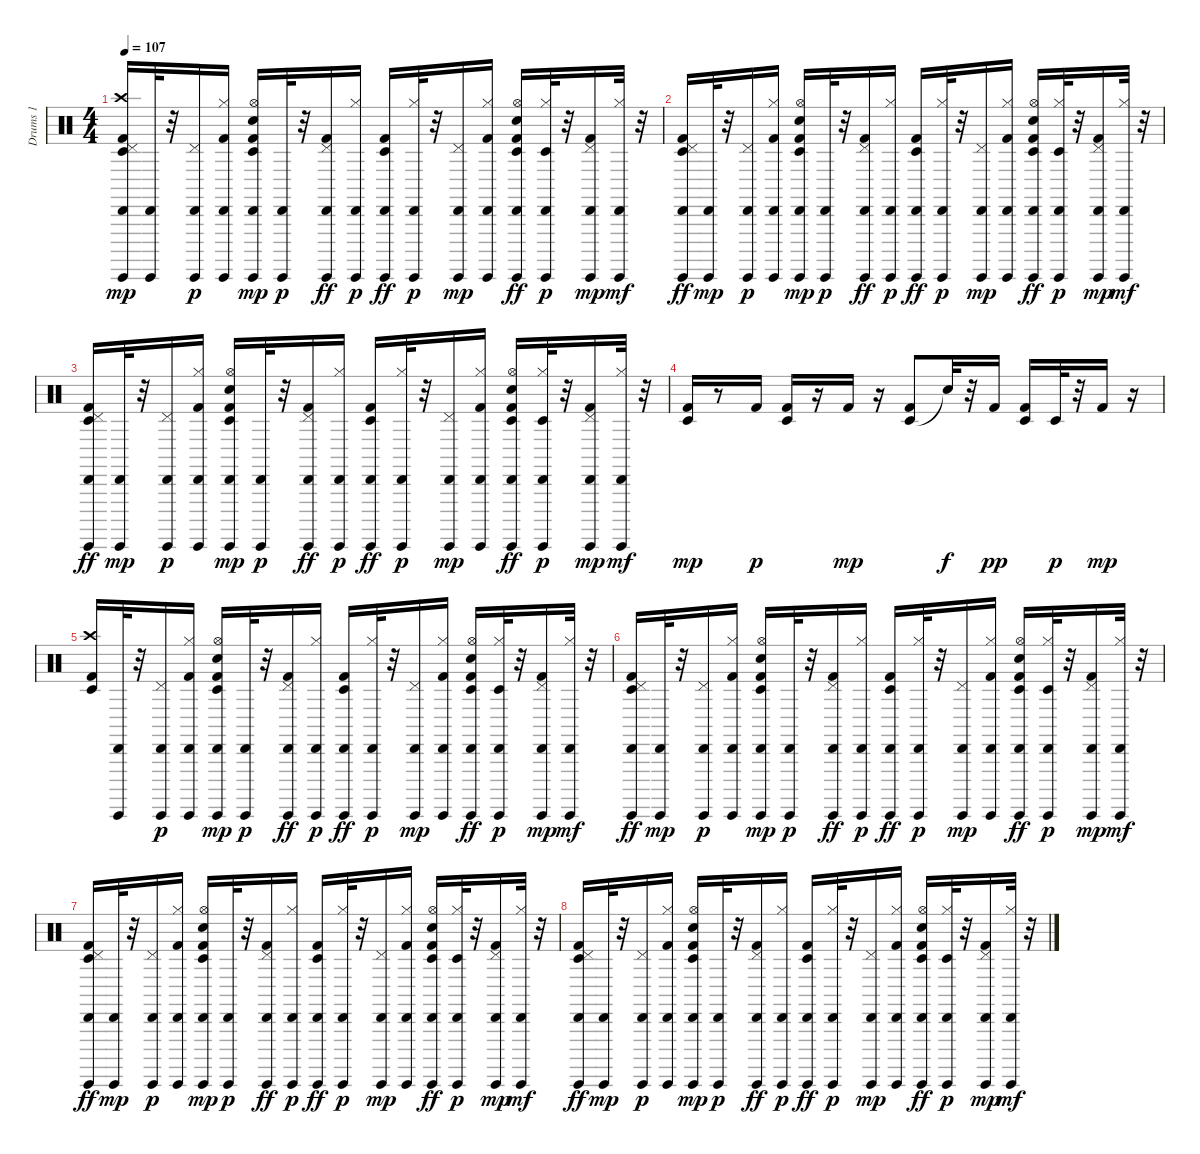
\track ("Drums 1" "Drums 1") {instrument percussion}
\staff {score}
\articulation defaults
\ts (4 4)
\tempo 107
\clef neutral
\ks c
("Timbale low (hit)" "Kick (hit) 2" "Pedal Hi-Hat (hit)" "Guiro (hit)" "Cabasa (hit)" "Crash high (hit)").16{dy mp} ("Guiro (hit)" "Cabasa (hit)").32 r.32 ("Pedal Hi-Hat (hit)" "Guiro (hit)" "Cabasa (hit)").16{dy p} ("Kick (hit) 2" "Hi-Hat (closed)" "Guiro (hit)" "Cabasa (hit)").16 ("Timbale low (hit)" "Kick (hit) 2" "Electric Snare (hit)" "Hi-Hat (open)" "Guiro (hit)" "Cabasa (hit)").16{dy mp} ("Guiro (hit)" "Cabasa (hit)").32{dy p} r.32 ("Kick (hit) 2" "Pedal Hi-Hat (hit)" "Guiro (hit)" "Cabasa (hit)").16{dy ff} ("Hi-Hat (closed)" "Guiro (hit)" "Cabasa (hit)").16{dy p} ("Timbale low (hit)" "Kick (hit) 2" "Guiro (hit)" "Cabasa (hit)").16{dy ff} ("Hi-Hat (closed)" "Guiro (hit)" "Cabasa (hit)").32{dy p} r.32 ("Pedal Hi-Hat (hit)" "Guiro (hit)" "Cabasa (hit)").16{dy mp} ("Kick (hit) 2" "Hi-Hat (closed)" "Guiro (hit)" "Cabasa (hit)").16 ("Timbale low (hit)" "Kick (hit) 2" "Electric Snare (hit)" "Hi-Hat (open)" "Guiro (hit)" "Cabasa (hit)").16{dy ff} ("Timbale low (hit)" "Hi-Hat (closed)" "Guiro (hit)" "Cabasa (hit)").32{dy p} r.32 ("Kick (hit) 2" "Pedal Hi-Hat (hit)" "Guiro (hit)" "Cabasa (hit)").16{dy mp} ("Hi-Hat (closed)" "Guiro (hit)" "Cabasa (hit)").32{dy mf} r.32 |
("Timbale low (hit)" "Kick (hit) 2" "Pedal Hi-Hat (hit)" "Guiro (hit)" "Cabasa (hit)").16{dy ff} ("Guiro (hit)" "Cabasa (hit)").32{dy mp} r.32 ("Pedal Hi-Hat (hit)" "Guiro (hit)" "Cabasa (hit)").16{dy p} ("Kick (hit) 2" "Hi-Hat (closed)" "Guiro (hit)" "Cabasa (hit)").16 ("Timbale low (hit)" "Kick (hit) 2" "Electric Snare (hit)" "Hi-Hat (open)" "Guiro (hit)" "Cabasa (hit)").16{dy mp} ("Guiro (hit)" "Cabasa (hit)").32{dy p} r.32 ("Kick (hit) 2" "Pedal Hi-Hat (hit)" "Guiro (hit)" "Cabasa (hit)").16{dy ff} ("Hi-Hat (closed)" "Guiro (hit)" "Cabasa (hit)").16{dy p} ("Timbale low (hit)" "Kick (hit) 2" "Guiro (hit)" "Cabasa (hit)").16{dy ff} ("Hi-Hat (closed)" "Guiro (hit)" "Cabasa (hit)").32{dy p} r.32 ("Pedal Hi-Hat (hit)" "Guiro (hit)" "Cabasa (hit)").16{dy mp} ("Kick (hit) 2" "Hi-Hat (closed)" "Guiro (hit)" "Cabasa (hit)").16 ("Timbale low (hit)" "Kick (hit) 2" "Electric Snare (hit)" "Hi-Hat (open)" "Guiro (hit)" "Cabasa (hit)").16{dy ff} ("Timbale low (hit)" "Hi-Hat (closed)" "Guiro (hit)" "Cabasa (hit)").32{dy p} r.32 ("Kick (hit) 2" "Pedal Hi-Hat (hit)" "Guiro (hit)" "Cabasa (hit)").16{dy mp} ("Hi-Hat (closed)" "Guiro (hit)" "Cabasa (hit)").32{dy mf} r.32 |
("Timbale low (hit)" "Kick (hit) 2" "Pedal Hi-Hat (hit)" "Guiro (hit)" "Cabasa (hit)").16{dy ff} ("Guiro (hit)" "Cabasa (hit)").32{dy mp} r.32 ("Pedal Hi-Hat (hit)" "Guiro (hit)" "Cabasa (hit)").16{dy p} ("Kick (hit) 2" "Hi-Hat (closed)" "Guiro (hit)" "Cabasa (hit)").16 ("Timbale low (hit)" "Kick (hit) 2" "Electric Snare (hit)" "Hi-Hat (open)" "Guiro (hit)" "Cabasa (hit)").16{dy mp} ("Guiro (hit)" "Cabasa (hit)").32{dy p} r.32 ("Kick (hit) 2" "Pedal Hi-Hat (hit)" "Guiro (hit)" "Cabasa (hit)").16{dy ff} ("Hi-Hat (closed)" "Guiro (hit)" "Cabasa (hit)").16{dy p} ("Timbale low (hit)" "Kick (hit) 2" "Guiro (hit)" "Cabasa (hit)").16{dy ff} ("Hi-Hat (closed)" "Guiro (hit)" "Cabasa (hit)").32{dy p} r.32 ("Pedal Hi-Hat (hit)" "Guiro (hit)" "Cabasa (hit)").16{dy mp} ("Kick (hit) 2" "Hi-Hat (closed)" "Guiro (hit)" "Cabasa (hit)").16 ("Timbale low (hit)" "Kick (hit) 2" "Electric Snare (hit)" "Hi-Hat (open)" "Guiro (hit)" "Cabasa (hit)").16{dy ff} ("Timbale low (hit)" "Hi-Hat (closed)" "Guiro (hit)" "Cabasa (hit)").32{dy p} r.32 ("Kick (hit) 2" "Pedal Hi-Hat (hit)" "Guiro (hit)" "Cabasa (hit)").16{dy mp} ("Hi-Hat (closed)" "Guiro (hit)" "Cabasa (hit)").32{dy mf} r.32 |
("Timbale low (hit)" "Kick (hit) 2").16{dy mp} r.8 "Kick (hit) 2".16{dy p} ("Timbale low (hit)" "Kick (hit) 2").16 r.16 "Kick (hit) 2".16{dy mp} r.16 ("Timbale low (hit)" "Kick (hit) 2").8 "Snare (hit)"{t}.32{dy f} r.32 "Kick (hit) 2".16{dy pp} ("Timbale low (hit)" "Kick (hit) 2").16 "Timbale low (hit)".32{dy p} r.32 "Kick (hit) 2".16{dy mp} r.16 |
("Timbale low (hit)" "Kick (hit) 2" "Crash high (hit)").16 ("Guiro (hit)" "Cabasa (hit)").32 r.32 ("Pedal Hi-Hat (hit)" "Guiro (hit)" "Cabasa (hit)").16{dy p} ("Kick (hit) 2" "Hi-Hat (closed)" "Guiro (hit)" "Cabasa (hit)").16 ("Timbale low (hit)" "Kick (hit) 2" "Electric Snare (hit)" "Hi-Hat (open)" "Guiro (hit)" "Cabasa (hit)").16{dy mp} ("Guiro (hit)" "Cabasa (hit)").32{dy p} r.32 ("Kick (hit) 2" "Pedal Hi-Hat (hit)" "Guiro (hit)" "Cabasa (hit)").16{dy ff} ("Hi-Hat (closed)" "Guiro (hit)" "Cabasa (hit)").16{dy p} ("Timbale low (hit)" "Kick (hit) 2" "Guiro (hit)" "Cabasa (hit)").16{dy ff} ("Hi-Hat (closed)" "Guiro (hit)" "Cabasa (hit)").32{dy p} r.32 ("Pedal Hi-Hat (hit)" "Guiro (hit)" "Cabasa (hit)").16{dy mp} ("Kick (hit) 2" "Hi-Hat (closed)" "Guiro (hit)" "Cabasa (hit)").16 ("Timbale low (hit)" "Kick (hit) 2" "Electric Snare (hit)" "Hi-Hat (open)" "Guiro (hit)" "Cabasa (hit)").16{dy ff} ("Timbale low (hit)" "Hi-Hat (closed)" "Guiro (hit)" "Cabasa (hit)").32{dy p} r.32 ("Kick (hit) 2" "Pedal Hi-Hat (hit)" "Guiro (hit)" "Cabasa (hit)").16{dy mp} ("Hi-Hat (closed)" "Guiro (hit)" "Cabasa (hit)").32{dy mf} r.32 |
("Timbale low (hit)" "Kick (hit) 2" "Pedal Hi-Hat (hit)" "Guiro (hit)" "Cabasa (hit)").16{dy ff} ("Guiro (hit)" "Cabasa (hit)").32{dy mp} r.32 ("Pedal Hi-Hat (hit)" "Guiro (hit)" "Cabasa (hit)").16{dy p} ("Kick (hit) 2" "Hi-Hat (closed)" "Guiro (hit)" "Cabasa (hit)").16 ("Timbale low (hit)" "Kick (hit) 2" "Electric Snare (hit)" "Hi-Hat (open)" "Guiro (hit)" "Cabasa (hit)").16{dy mp} ("Guiro (hit)" "Cabasa (hit)").32{dy p} r.32 ("Kick (hit) 2" "Pedal Hi-Hat (hit)" "Guiro (hit)" "Cabasa (hit)").16{dy ff} ("Hi-Hat (closed)" "Guiro (hit)" "Cabasa (hit)").16{dy p} ("Timbale low (hit)" "Kick (hit) 2" "Guiro (hit)" "Cabasa (hit)").16{dy ff} ("Hi-Hat (closed)" "Guiro (hit)" "Cabasa (hit)").32{dy p} r.32 ("Pedal Hi-Hat (hit)" "Guiro (hit)" "Cabasa (hit)").16{dy mp} ("Kick (hit) 2" "Hi-Hat (closed)" "Guiro (hit)" "Cabasa (hit)").16 ("Timbale low (hit)" "Kick (hit) 2" "Electric Snare (hit)" "Hi-Hat (open)" "Guiro (hit)" "Cabasa (hit)").16{dy ff} ("Timbale low (hit)" "Hi-Hat (closed)" "Guiro (hit)" "Cabasa (hit)").32{dy p} r.32 ("Kick (hit) 2" "Pedal Hi-Hat (hit)" "Guiro (hit)" "Cabasa (hit)").16{dy mp} ("Hi-Hat (closed)" "Guiro (hit)" "Cabasa (hit)").32{dy mf} r.32 |
("Timbale low (hit)" "Kick (hit) 2" "Pedal Hi-Hat (hit)" "Guiro (hit)" "Cabasa (hit)").16{dy ff} ("Guiro (hit)" "Cabasa (hit)").32{dy mp} r.32 ("Pedal Hi-Hat (hit)" "Guiro (hit)" "Cabasa (hit)").16{dy p} ("Kick (hit) 2" "Hi-Hat (closed)" "Guiro (hit)" "Cabasa (hit)").16 ("Timbale low (hit)" "Kick (hit) 2" "Electric Snare (hit)" "Hi-Hat (open)" "Guiro (hit)" "Cabasa (hit)").16{dy mp} ("Guiro (hit)" "Cabasa (hit)").32{dy p} r.32 ("Kick (hit) 2" "Pedal Hi-Hat (hit)" "Guiro (hit)" "Cabasa (hit)").16{dy ff} ("Hi-Hat (closed)" "Guiro (hit)" "Cabasa (hit)").16{dy p} ("Timbale low (hit)" "Kick (hit) 2" "Guiro (hit)" "Cabasa (hit)").16{dy ff} ("Hi-Hat (closed)" "Guiro (hit)" "Cabasa (hit)").32{dy p} r.32 ("Pedal Hi-Hat (hit)" "Guiro (hit)" "Cabasa (hit)").16{dy mp} ("Kick (hit) 2" "Hi-Hat (closed)" "Guiro (hit)" "Cabasa (hit)").16 ("Timbale low (hit)" "Kick (hit) 2" "Electric Snare (hit)" "Hi-Hat (open)" "Guiro (hit)" "Cabasa (hit)").16{dy ff} ("Timbale low (hit)" "Hi-Hat (closed)" "Guiro (hit)" "Cabasa (hit)").32{dy p} r.32 ("Kick (hit) 2" "Pedal Hi-Hat (hit)" "Guiro (hit)" "Cabasa (hit)").16{dy mp} ("Hi-Hat (closed)" "Guiro (hit)" "Cabasa (hit)").32{dy mf} r.32 |
("Timbale low (hit)" "Kick (hit) 2" "Pedal Hi-Hat (hit)" "Guiro (hit)" "Cabasa (hit)").16{dy ff} ("Guiro (hit)" "Cabasa (hit)").32{dy mp} r.32 ("Pedal Hi-Hat (hit)" "Guiro (hit)" "Cabasa (hit)").16{dy p} ("Kick (hit) 2" "Hi-Hat (closed)" "Guiro (hit)" "Cabasa (hit)").16 ("Timbale low (hit)" "Kick (hit) 2" "Electric Snare (hit)" "Hi-Hat (open)" "Guiro (hit)" "Cabasa (hit)").16{dy mp} ("Guiro (hit)" "Cabasa (hit)").32{dy p} r.32 ("Kick (hit) 2" "Pedal Hi-Hat (hit)" "Guiro (hit)" "Cabasa (hit)").16{dy ff} ("Hi-Hat (closed)" "Guiro (hit)" "Cabasa (hit)").16{dy p} ("Timbale low (hit)" "Kick (hit) 2" "Guiro (hit)" "Cabasa (hit)").16{dy ff} ("Hi-Hat (closed)" "Guiro (hit)" "Cabasa (hit)").32{dy p} r.32 ("Pedal Hi-Hat (hit)" "Guiro (hit)" "Cabasa (hit)").16{dy mp} ("Kick (hit) 2" "Hi-Hat (closed)" "Guiro (hit)" "Cabasa (hit)").16 ("Timbale low (hit)" "Kick (hit) 2" "Electric Snare (hit)" "Hi-Hat (open)" "Guiro (hit)" "Cabasa (hit)").16{dy ff} ("Timbale low (hit)" "Hi-Hat (closed)" "Guiro (hit)" "Cabasa (hit)").32{dy p} r.32 ("Kick (hit) 2" "Pedal Hi-Hat (hit)" "Guiro (hit)" "Cabasa (hit)").16{dy mp} ("Hi-Hat (closed)" "Guiro (hit)" "Cabasa (hit)").32{dy mf} r.32
